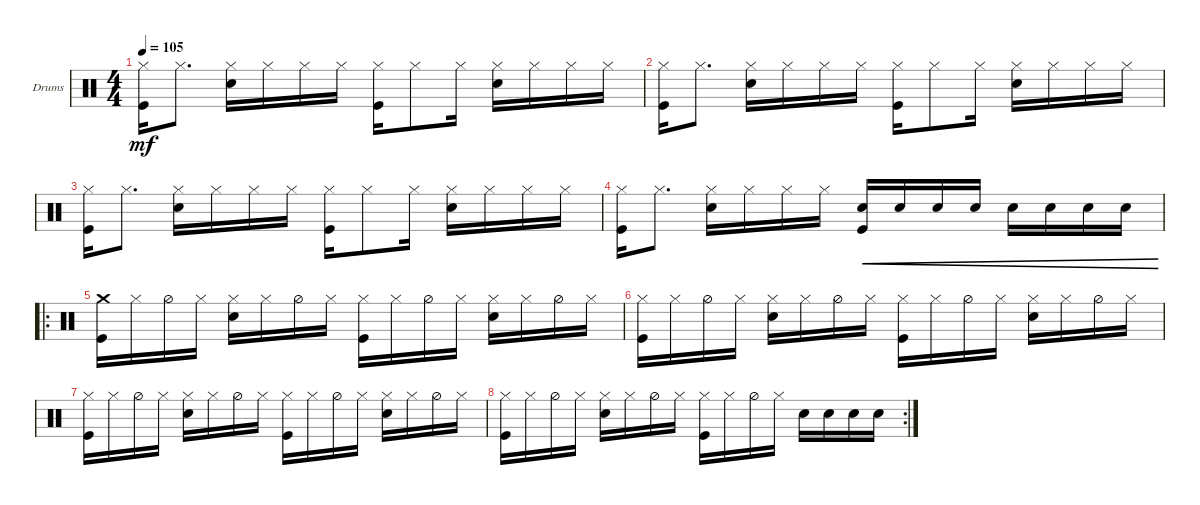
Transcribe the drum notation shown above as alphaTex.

\defaultSystemsLayout 4
\bracketExtendMode groupsimilarinstruments
\firstSystemTrackNameOrientation horizontal
\otherSystemsTrackNameOrientation horizontal
\track ("Drumkit" "Drums") {instrument percussion}
\staff {score}
\articulation defaults
\ts (4 4)
\tempo 105
\clef neutral
\ks c
("Kick (hit)" "Hi-Hat (closed)").16{dy mf} "Hi-Hat (closed)".8{d} ("Snare (hit) 2" "Hi-Hat (closed)").16 "Hi-Hat (closed)".16 "Hi-Hat (closed)".16 "Hi-Hat (closed)".16 ("Kick (hit)" "Hi-Hat (closed)").16 "Hi-Hat (closed)".8 "Hi-Hat (closed)".16 ("Snare (hit) 2" "Hi-Hat (closed)").16 "Hi-Hat (closed)".16 "Hi-Hat (closed)".16 "Hi-Hat (closed)".16 |
("Kick (hit)" "Hi-Hat (closed)").16 "Hi-Hat (closed)".8{d} ("Snare (hit) 2" "Hi-Hat (closed)").16 "Hi-Hat (closed)".16 "Hi-Hat (closed)".16 "Hi-Hat (closed)".16 ("Kick (hit)" "Hi-Hat (closed)").16 "Hi-Hat (closed)".8 "Hi-Hat (closed)".16 ("Snare (hit) 2" "Hi-Hat (closed)").16 "Hi-Hat (closed)".16 "Hi-Hat (closed)".16 "Hi-Hat (closed)".16 |
("Kick (hit)" "Hi-Hat (closed)").16 "Hi-Hat (closed)".8{d} ("Snare (hit) 2" "Hi-Hat (closed)").16 "Hi-Hat (closed)".16 "Hi-Hat (closed)".16 "Hi-Hat (closed)".16 ("Kick (hit)" "Hi-Hat (closed)").16 "Hi-Hat (closed)".8 "Hi-Hat (closed)".16 ("Snare (hit) 2" "Hi-Hat (closed)").16 "Hi-Hat (closed)".16 "Hi-Hat (closed)".16 "Hi-Hat (closed)".16 |
("Kick (hit)" "Hi-Hat (closed)").16 "Hi-Hat (closed)".8{d} ("Snare (hit) 2" "Hi-Hat (closed)").16 "Hi-Hat (closed)".16 "Hi-Hat (closed)".16 "Hi-Hat (closed)".16 ("Kick (hit)" "Snare (hit) 2").16{cre} "Snare (hit) 2".16{cre} "Snare (hit) 2".16{cre} "Snare (hit) 2".16{cre} "Snare (hit) 2".16{cre} "Snare (hit) 2".16{cre} "Snare (hit) 2".16{cre} "Snare (hit) 2".16{cre} |
\ro
("Kick (hit)" "Crash medium (hit)").16 "Hi-Hat (closed)".16 "Hi-Hat (half)".16 "Hi-Hat (closed)".16 ("Hi-Hat (closed)" "Snare (hit) 2").16 "Hi-Hat (closed)".16 "Hi-Hat (half)".16 "Hi-Hat (closed)".16 ("Hi-Hat (closed)" "Kick (hit)").16 "Hi-Hat (closed)".16 "Hi-Hat (half)".16 "Hi-Hat (closed)".16 ("Hi-Hat (closed)" "Snare (hit) 2").16 "Hi-Hat (closed)".16 "Hi-Hat (half)".16 "Hi-Hat (closed)".16 |
("Hi-Hat (closed)" "Kick (hit)").16 "Hi-Hat (closed)".16 "Hi-Hat (half)".16 "Hi-Hat (closed)".16 ("Hi-Hat (closed)" "Snare (hit) 2").16 "Hi-Hat (closed)".16 "Hi-Hat (half)".16 "Hi-Hat (closed)".16 ("Hi-Hat (closed)" "Kick (hit)").16 "Hi-Hat (closed)".16 "Hi-Hat (half)".16 "Hi-Hat (closed)".16 ("Hi-Hat (closed)" "Snare (hit) 2").16 "Hi-Hat (closed)".16 "Hi-Hat (half)".16 "Hi-Hat (closed)".16 |
("Hi-Hat (closed)" "Kick (hit)").16 "Hi-Hat (closed)".16 "Hi-Hat (half)".16 "Hi-Hat (closed)".16 ("Hi-Hat (closed)" "Snare (hit) 2").16 "Hi-Hat (closed)".16 "Hi-Hat (half)".16 "Hi-Hat (closed)".16 ("Hi-Hat (closed)" "Kick (hit)").16 "Hi-Hat (closed)".16 "Hi-Hat (half)".16 "Hi-Hat (closed)".16 ("Hi-Hat (closed)" "Snare (hit) 2").16 "Hi-Hat (closed)".16 "Hi-Hat (half)".16 "Hi-Hat (closed)".16 |
\rc 2
("Hi-Hat (closed)" "Kick (hit)").16 "Hi-Hat (closed)".16 "Hi-Hat (half)".16 "Hi-Hat (closed)".16 ("Hi-Hat (closed)" "Snare (hit) 2").16 "Hi-Hat (closed)".16 "Hi-Hat (half)".16 "Hi-Hat (closed)".16 ("Hi-Hat (closed)" "Kick (hit)").16 "Hi-Hat (closed)".16 "Hi-Hat (half)".16 "Hi-Hat (closed)".16 "Snare (hit) 2".16 "Snare (hit) 2".16 "Snare (hit) 2".16 "Snare (hit) 2".16
